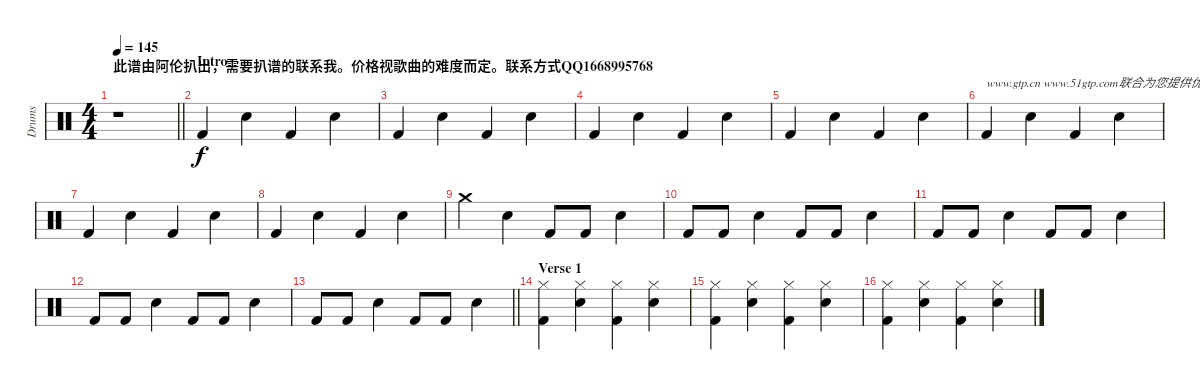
\track ("Drums" "Drums") {instrument percussion}
\staff {score}
\articulation defaults
\ts (4 4)
\section ("" "此谱由阿伦扒出，需要扒谱的联系我。价格视歌曲的难度而定。联系方式QQ1668995768")
\tempo 145
\clef neutral
\barLineRight lightlight
\ks c
r.1{dy f} |
\section ("" "Intro")
"Kick (hit) 2".4 "Electric Snare (hit)".4 "Kick (hit) 2".4 "Electric Snare (hit)".4 |
"Kick (hit) 2".4 "Electric Snare (hit)".4 "Kick (hit) 2".4 "Electric Snare (hit)".4 |
"Kick (hit) 2".4 "Electric Snare (hit)".4 "Kick (hit) 2".4 "Electric Snare (hit)".4 |
"Kick (hit) 2".4 "Electric Snare (hit)".4 "Kick (hit) 2".4 "Electric Snare (hit)".4 |
"Kick (hit) 2".4{txt "www.gtp.cn www.51gtp.com联合为您提供优秀的GTP!"} "Electric Snare (hit)".4 "Kick (hit) 2".4 "Electric Snare (hit)".4 |
"Kick (hit) 2".4 "Electric Snare (hit)".4 "Kick (hit) 2".4 "Electric Snare (hit)".4 |
"Kick (hit) 2".4 "Electric Snare (hit)".4 "Kick (hit) 2".4 "Electric Snare (hit)".4 |
"Crash medium (hit)".4 "Electric Snare (hit)".4 "Kick (hit) 2".8 "Kick (hit) 2".8 "Electric Snare (hit)".4 |
"Kick (hit) 2".8 "Kick (hit) 2".8 "Electric Snare (hit)".4 "Kick (hit) 2".8 "Kick (hit) 2".8 "Electric Snare (hit)".4 |
"Kick (hit) 2".8 "Kick (hit) 2".8 "Electric Snare (hit)".4 "Kick (hit) 2".8 "Kick (hit) 2".8 "Electric Snare (hit)".4 |
"Kick (hit) 2".8 "Kick (hit) 2".8 "Electric Snare (hit)".4 "Kick (hit) 2".8 "Kick (hit) 2".8 "Electric Snare (hit)".4 |
\barLineRight lightlight "Kick (hit) 2".8 "Kick (hit) 2".8 "Electric Snare (hit)".4 "Kick (hit) 2".8 "Kick (hit) 2".8 "Electric Snare (hit)".4
|
\section ("" "Verse 1")
("Kick (hit) 2" "Hi-Hat (closed)").4 ("Electric Snare (hit)" "Hi-Hat (closed)").4 ("Kick (hit) 2" "Hi-Hat (closed)").4 ("Electric Snare (hit)" "Hi-Hat (closed)").4 |
("Kick (hit) 2" "Hi-Hat (closed)").4 ("Electric Snare (hit)" "Hi-Hat (closed)").4 ("Kick (hit) 2" "Hi-Hat (closed)").4 ("Electric Snare (hit)" "Hi-Hat (closed)").4 |
("Kick (hit) 2" "Hi-Hat (closed)").4 ("Electric Snare (hit)" "Hi-Hat (closed)").4 ("Kick (hit) 2" "Hi-Hat (closed)").4 ("Electric Snare (hit)" "Hi-Hat (closed)").4
